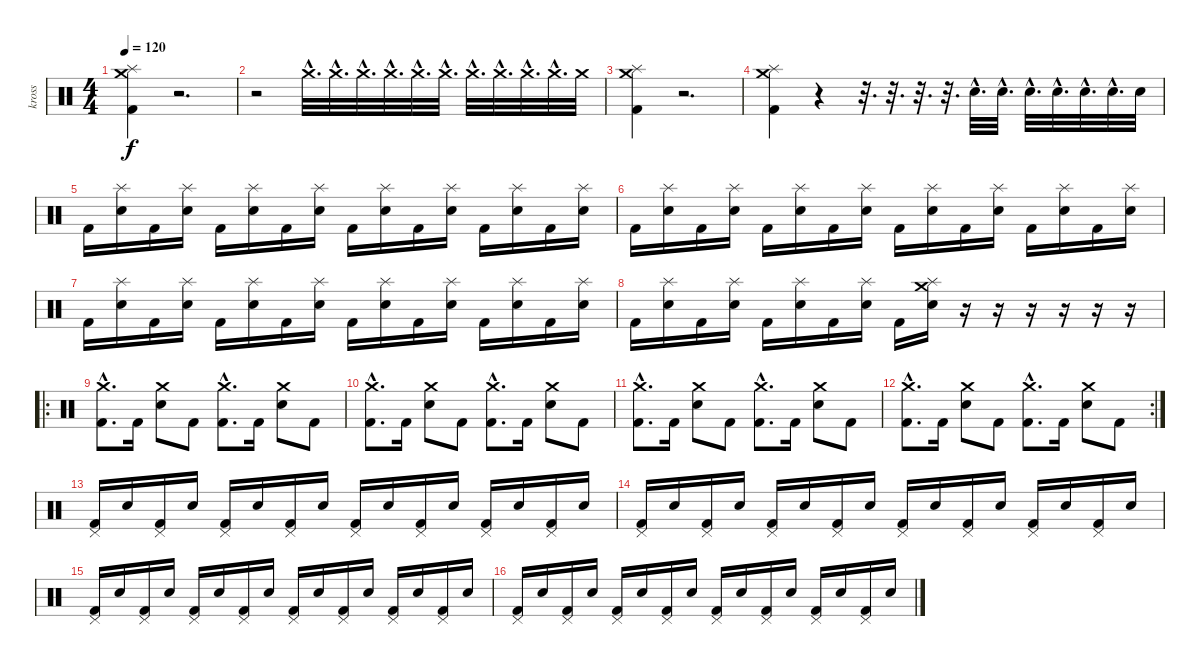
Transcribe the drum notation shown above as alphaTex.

\track ("kross" "kross") {instrument percussion}
\staff {score}
\articulation defaults
\ts (4 4)
\tempo 120
\clef neutral
\ks c
("Crash medium (hit)" "Splash (hit)" "Kick (hit) 2").4{dy f} r.2{d} |
r.2 "Crash medium (hit)"{hac}.32{d volume 4} "Crash medium (hit)"{hac}.32{d volume 5} "Crash medium (hit)"{hac}.32{d volume 7} "Crash medium (hit)"{hac}.32{d volume 7} "Crash medium (hit)"{hac}.32{d} "Crash medium (hit)"{hac}.32{d volume 8} "Crash medium (hit)"{hac}.32{d} "Crash medium (hit)"{hac}.32{d volume 10} "Crash medium (hit)"{hac}.32{d} "Crash medium (hit)"{hac}.32{d volume 12} "Crash medium (hit)".32{volume 14} |
("Splash (hit)" "Crash medium (hit)" "Kick (hit) 2").4 r.2{d} |
("Crash medium (hit)" "Splash (hit)" "Kick (hit) 2").4 r.4 r.32{d} r.32{d} r.32{d} r.32{d} "Electric Snare (hit)"{hac}.32{d} "Electric Snare (hit)"{hac}.32{d} "Electric Snare (hit)"{hac}.32{d} "Electric Snare (hit)"{hac}.32{d} "Electric Snare (hit)"{hac}.32{d} "Electric Snare (hit)"{hac}.32{d} "Electric Snare (hit)".32 |
"Kick (hit) 2".16 ("Splash (hit)" "Electric Snare (hit)").16 "Kick (hit) 2".16 ("Splash (hit)" "Electric Snare (hit)").16 "Kick (hit) 2".16 ("Splash (hit)" "Electric Snare (hit)").16 "Kick (hit) 2".16 ("Splash (hit)" "Electric Snare (hit)").16 "Kick (hit) 2".16 ("Splash (hit)" "Electric Snare (hit)").16 "Kick (hit) 2".16 ("Splash (hit)" "Electric Snare (hit)").16 "Kick (hit) 2".16 ("Splash (hit)" "Electric Snare (hit)").16 "Kick (hit) 2".16 ("Splash (hit)" "Electric Snare (hit)").16 |
"Kick (hit) 2".16 ("Splash (hit)" "Electric Snare (hit)").16 "Kick (hit) 2".16 ("Splash (hit)" "Electric Snare (hit)").16 "Kick (hit) 2".16 ("Splash (hit)" "Electric Snare (hit)").16 "Kick (hit) 2".16 ("Splash (hit)" "Electric Snare (hit)").16 "Kick (hit) 2".16 ("Splash (hit)" "Electric Snare (hit)").16 "Kick (hit) 2".16 ("Splash (hit)" "Electric Snare (hit)").16 "Kick (hit) 2".16 ("Splash (hit)" "Electric Snare (hit)").16 "Kick (hit) 2".16 ("Splash (hit)" "Electric Snare (hit)").16 |
"Kick (hit) 2".16 ("Splash (hit)" "Electric Snare (hit)").16 "Kick (hit) 2".16 ("Splash (hit)" "Electric Snare (hit)").16 "Kick (hit) 2".16 ("Splash (hit)" "Electric Snare (hit)").16 "Kick (hit) 2".16 ("Splash (hit)" "Electric Snare (hit)").16 "Kick (hit) 2".16 ("Splash (hit)" "Electric Snare (hit)").16 "Kick (hit) 2".16 ("Splash (hit)" "Electric Snare (hit)").16 "Kick (hit) 2".16 ("Splash (hit)" "Electric Snare (hit)").16 "Kick (hit) 2".16 ("Splash (hit)" "Electric Snare (hit)").16 |
"Kick (hit) 2".16 ("Splash (hit)" "Electric Snare (hit)").16 "Kick (hit) 2".16 ("Splash (hit)" "Electric Snare (hit)").16 "Kick (hit) 2".16 ("Splash (hit)" "Electric Snare (hit)").16 "Kick (hit) 2".16 ("Splash (hit)" "Electric Snare (hit)").16 "Kick (hit) 2".16 ("Splash (hit)" "Crash medium (hit)" "Electric Snare (hit)").16 r.16 r.16 r.16 r.16 r.16 r.16 |
\ro
("Crash medium (hit)"{hac} "Kick (hit) 2"{hac}).8{d} "Kick (hit) 2".16 ("Crash medium (hit)" "Electric Snare (hit)").8 "Kick (hit) 2".8 ("Crash medium (hit)"{hac} "Kick (hit) 2"{hac}).8{d} "Kick (hit) 2".16 ("Crash medium (hit)" "Electric Snare (hit)").8 "Kick (hit) 2".8 |
("Crash medium (hit)"{hac} "Kick (hit) 2"{hac}).8{d} "Kick (hit) 2".16 ("Crash medium (hit)" "Electric Snare (hit)").8 "Kick (hit) 2".8 ("Crash medium (hit)"{hac} "Kick (hit) 2"{hac}).8{d} "Kick (hit) 2".16 ("Crash medium (hit)" "Electric Snare (hit)").8 "Kick (hit) 2".8 |
("Crash medium (hit)"{hac} "Kick (hit) 2"{hac}).8{d} "Kick (hit) 2".16 ("Crash medium (hit)" "Electric Snare (hit)").8 "Kick (hit) 2".8 ("Crash medium (hit)"{hac} "Kick (hit) 2"{hac}).8{d} "Kick (hit) 2".16 ("Crash medium (hit)" "Electric Snare (hit)").8 "Kick (hit) 2".8 |
\rc 2
("Crash medium (hit)"{hac} "Kick (hit) 2"{hac}).8{d} "Kick (hit) 2".16 ("Crash medium (hit)" "Electric Snare (hit)").8 "Kick (hit) 2".8 ("Crash medium (hit)"{hac} "Kick (hit) 2"{hac}).8{d} "Kick (hit) 2".16 ("Crash medium (hit)" "Electric Snare (hit)").8 "Kick (hit) 2".8 |
("Pedal Hi-Hat (hit)" "Kick (hit) 2").16 "Electric Snare (hit)".16 ("Pedal Hi-Hat (hit)" "Kick (hit) 2").16 "Electric Snare (hit)".16 ("Pedal Hi-Hat (hit)" "Kick (hit) 2").16 "Electric Snare (hit)".16 ("Pedal Hi-Hat (hit)" "Kick (hit) 2").16 "Electric Snare (hit)".16 ("Pedal Hi-Hat (hit)" "Kick (hit) 2").16 "Electric Snare (hit)".16 ("Pedal Hi-Hat (hit)" "Kick (hit) 2").16 "Electric Snare (hit)".16 ("Pedal Hi-Hat (hit)" "Kick (hit) 2").16 "Electric Snare (hit)".16 ("Pedal Hi-Hat (hit)" "Kick (hit) 2").16 "Electric Snare (hit)".16 |
("Pedal Hi-Hat (hit)" "Kick (hit) 2").16 "Electric Snare (hit)".16 ("Pedal Hi-Hat (hit)" "Kick (hit) 2").16 "Electric Snare (hit)".16 ("Pedal Hi-Hat (hit)" "Kick (hit) 2").16 "Electric Snare (hit)".16 ("Pedal Hi-Hat (hit)" "Kick (hit) 2").16 "Electric Snare (hit)".16 ("Pedal Hi-Hat (hit)" "Kick (hit) 2").16 "Electric Snare (hit)".16 ("Pedal Hi-Hat (hit)" "Kick (hit) 2").16 "Electric Snare (hit)".16 ("Pedal Hi-Hat (hit)" "Kick (hit) 2").16 "Electric Snare (hit)".16 ("Pedal Hi-Hat (hit)" "Kick (hit) 2").16 "Electric Snare (hit)".16 |
("Pedal Hi-Hat (hit)" "Kick (hit) 2").16 "Electric Snare (hit)".16 ("Pedal Hi-Hat (hit)" "Kick (hit) 2").16 "Electric Snare (hit)".16 ("Pedal Hi-Hat (hit)" "Kick (hit) 2").16 "Electric Snare (hit)".16 ("Pedal Hi-Hat (hit)" "Kick (hit) 2").16 "Electric Snare (hit)".16 ("Pedal Hi-Hat (hit)" "Kick (hit) 2").16 "Electric Snare (hit)".16 ("Pedal Hi-Hat (hit)" "Kick (hit) 2").16 "Electric Snare (hit)".16 ("Pedal Hi-Hat (hit)" "Kick (hit) 2").16 "Electric Snare (hit)".16 ("Pedal Hi-Hat (hit)" "Kick (hit) 2").16 "Electric Snare (hit)".16 |
("Pedal Hi-Hat (hit)" "Kick (hit) 2").16 "Electric Snare (hit)".16 ("Pedal Hi-Hat (hit)" "Kick (hit) 2").16 "Electric Snare (hit)".16 ("Pedal Hi-Hat (hit)" "Kick (hit) 2").16 "Electric Snare (hit)".16 ("Pedal Hi-Hat (hit)" "Kick (hit) 2").16 "Electric Snare (hit)".16 ("Pedal Hi-Hat (hit)" "Kick (hit) 2").16 "Electric Snare (hit)".16 ("Pedal Hi-Hat (hit)" "Kick (hit) 2").16 "Electric Snare (hit)".16 ("Pedal Hi-Hat (hit)" "Kick (hit) 2").16 "Electric Snare (hit)".16 ("Pedal Hi-Hat (hit)" "Kick (hit) 2").16 "Electric Snare (hit)".16
